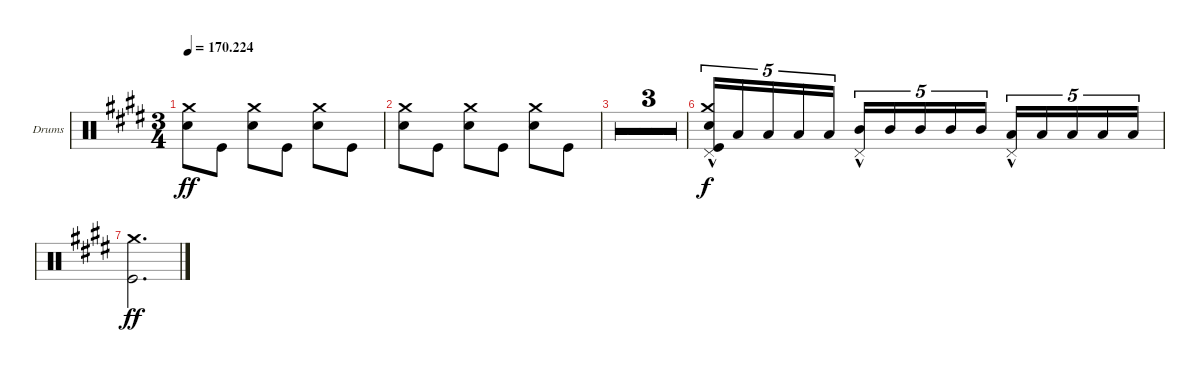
\defaultSystemsLayout 4
\bracketExtendMode groupsimilarinstruments
\firstSystemTrackNameOrientation horizontal
\otherSystemsTrackNameOrientation horizontal
\track ("Dave Grohl (Drums)" "Drums") {multiBarRest instrument percussion}
\staff {score}
\articulation defaults
\ts (3 4)
\tempo
170.224
\accidentals auto
\clef neutral
\ottava regular
\simile none
\ks e
("Snare (hit) 2" "Crash medium (hit)").8{dy ff} "Kick (hit)".8 ("Snare (hit) 2" "Crash medium (hit)").8 "Kick (hit)".8 ("Snare (hit) 2" "Crash medium (hit)").8 "Kick (hit)".8 |
("Snare (hit) 2" "Crash medium (hit)").8 "Kick (hit)".8 ("Snare (hit) 2" "Crash medium (hit)").8 "Kick (hit)".8 ("Snare (hit) 2" "Crash medium (hit)").8 "Kick (hit)".8 |
\simile firstofdouble
|
\simile secondofdouble
|
\simile simple
|
\simile none
("Snare (hit) 2"{hac} "Crash medium (hit)" "Kick (hit)" "Pedal Hi-Hat (hit)").16{tu (5 4) dy f} "Low Tom (hit)".16{tu (5 4)} "Low Tom (hit)".16{tu (5 4)} "Low Tom (hit)".16{tu (5 4)} "Low Tom (hit)".16{tu (5 4)} ("Mid Tom (hit)"{hac} "Pedal Hi-Hat (hit)").16{tu (5 4)} "Mid Tom (hit)".16{tu (5 4)} "Mid Tom (hit)".16{tu (5 4)} "Mid Tom (hit)".16{tu (5 4)} "Mid Tom (hit)".16{tu (5 4)} ("Low Tom (hit)"{hac} "Pedal Hi-Hat (hit)").16{tu (5 4)} "Low Tom (hit)".16{tu (5 4)} "Low Tom (hit)".16{tu (5 4)} "Low Tom (hit)".16{tu (5 4)} "Low Tom (hit)".16{tu (5 4)} |
("Kick (hit)" "Crash medium (hit)").2{d dy ff}
